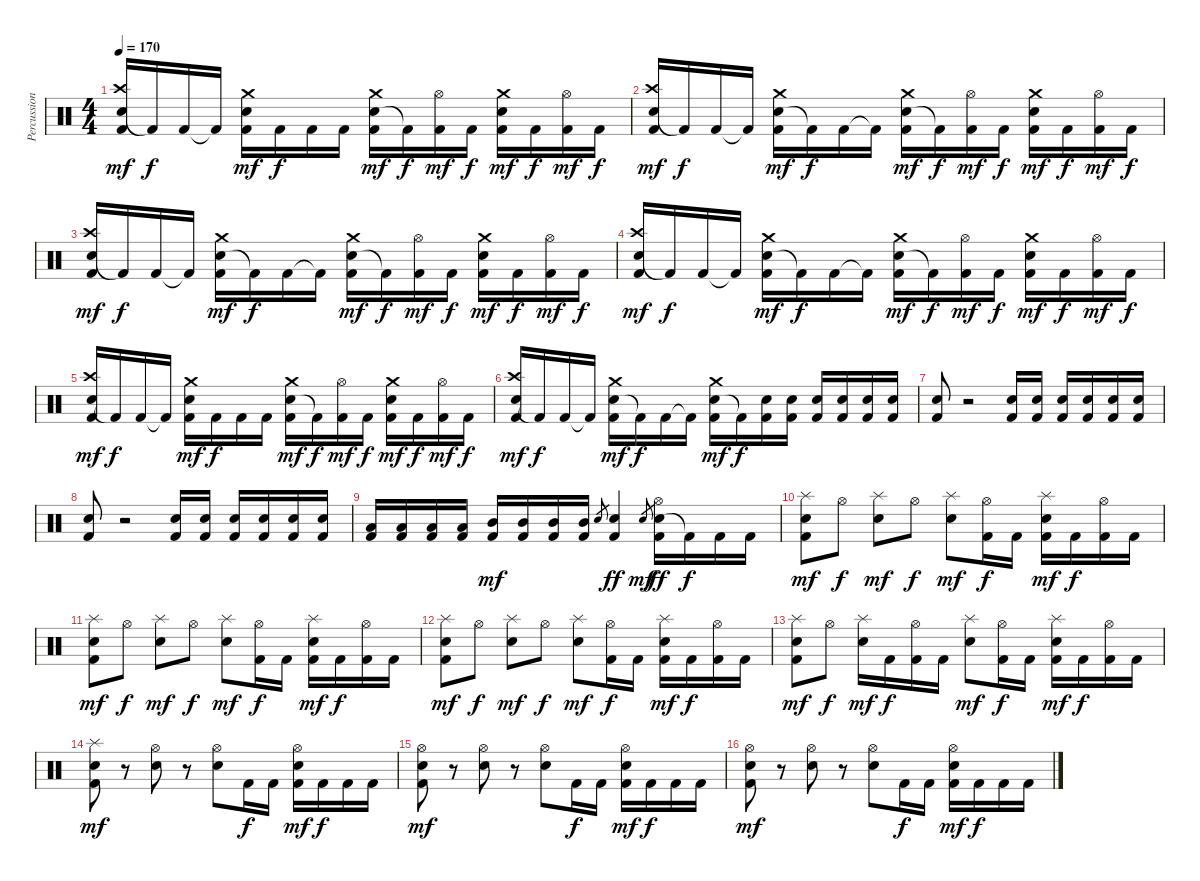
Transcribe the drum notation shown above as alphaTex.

\track ("Percussion" "Percussion") {instrument percussion}
\staff {score}
\articulation defaults
\ts (4 4)
\tempo 170
\clef neutral
\ks c
("Snare (hit) 2" "Crash high (hit)" "Kick (hit) 2").16{dy mf} "Kick (hit) 2"{t}.16{dy f} "Kick (hit) 2".16 "Kick (hit) 2"{t}.16 ("Snare (hit) 2" "Crash medium (hit)" "Kick (hit) 2").16{dy mf} "Kick (hit) 2".16{dy f} "Kick (hit) 2".16 "Kick (hit) 2".16 ("Snare (hit) 2" "Crash medium (hit)" "Kick (hit) 2").16{dy mf} "Kick (hit) 2"{t}.16{dy f} ("Hi-Hat (open)" "Kick (hit) 2").16{dy mf} "Kick (hit) 2".16{dy f} ("Snare (hit) 2" "Crash medium (hit)" "Kick (hit) 2").16{dy mf} "Kick (hit) 2".16{dy f} ("Hi-Hat (open)" "Kick (hit) 2").16{dy mf} "Kick (hit) 2".16{dy f} |
("Snare (hit) 2" "Crash high (hit)" "Kick (hit) 2").16{dy mf} "Kick (hit) 2"{t}.16{dy f} "Kick (hit) 2".16 "Kick (hit) 2"{t}.16 ("Snare (hit) 2" "Crash medium (hit)" "Kick (hit) 2").16{dy mf} "Kick (hit) 2"{t}.16{dy f} "Kick (hit) 2".16 "Kick (hit) 2"{t}.16 ("Snare (hit) 2" "Crash medium (hit)" "Kick (hit) 2").16{dy mf} "Kick (hit) 2"{t}.16{dy f} ("Hi-Hat (open)" "Kick (hit) 2").16{dy mf} "Kick (hit) 2".16{dy f} ("Snare (hit) 2" "Crash medium (hit)" "Kick (hit) 2").16{dy mf} "Kick (hit) 2".16{dy f} ("Hi-Hat (open)" "Kick (hit) 2").16{dy mf} "Kick (hit) 2".16{dy f} |
("Snare (hit) 2" "Crash high (hit)" "Kick (hit) 2").16{dy mf} "Kick (hit) 2"{t}.16{dy f} "Kick (hit) 2".16 "Kick (hit) 2"{t}.16 ("Snare (hit) 2" "Crash medium (hit)" "Kick (hit) 2").16{dy mf} "Kick (hit) 2"{t}.16{dy f} "Kick (hit) 2".16 "Kick (hit) 2"{t}.16 ("Snare (hit) 2" "Crash medium (hit)" "Kick (hit) 2").16{dy mf} "Kick (hit) 2"{t}.16{dy f} ("Hi-Hat (open)" "Kick (hit) 2").16{dy mf} "Kick (hit) 2".16{dy f} ("Snare (hit) 2" "Crash medium (hit)" "Kick (hit) 2").16{dy mf} "Kick (hit) 2".16{dy f} ("Hi-Hat (open)" "Kick (hit) 2").16{dy mf} "Kick (hit) 2".16{dy f} |
("Snare (hit) 2" "Crash high (hit)" "Kick (hit) 2").16{dy mf} "Kick (hit) 2"{t}.16{dy f} "Kick (hit) 2".16 "Kick (hit) 2"{t}.16 ("Snare (hit) 2" "Crash medium (hit)" "Kick (hit) 2").16{dy mf} "Kick (hit) 2"{t}.16{dy f} "Kick (hit) 2".16 "Kick (hit) 2"{t}.16 ("Snare (hit) 2" "Crash medium (hit)" "Kick (hit) 2").16{dy mf} "Kick (hit) 2"{t}.16{dy f} ("Hi-Hat (open)" "Kick (hit) 2").16{dy mf} "Kick (hit) 2".16{dy f} ("Snare (hit) 2" "Crash medium (hit)" "Kick (hit) 2").16{dy mf} "Kick (hit) 2".16{dy f} ("Hi-Hat (open)" "Kick (hit) 2").16{dy mf} "Kick (hit) 2".16{dy f} |
("Snare (hit) 2" "Crash high (hit)" "Kick (hit) 2").16{dy mf} "Kick (hit) 2"{t}.16{dy f} "Kick (hit) 2".16 "Kick (hit) 2"{t}.16 ("Snare (hit) 2" "Crash medium (hit)" "Kick (hit) 2").16{dy mf} "Kick (hit) 2".16{dy f} "Kick (hit) 2".16 "Kick (hit) 2".16 ("Snare (hit) 2" "Crash medium (hit)" "Kick (hit) 2").16{dy mf} "Kick (hit) 2"{t}.16{dy f} ("Hi-Hat (open)" "Kick (hit) 2").16{dy mf} "Kick (hit) 2".16{dy f} ("Snare (hit) 2" "Crash medium (hit)" "Kick (hit) 2").16{dy mf} "Kick (hit) 2".16{dy f} ("Hi-Hat (open)" "Kick (hit) 2").16{dy mf} "Kick (hit) 2".16{dy f} |
("Snare (hit) 2" "Crash high (hit)" "Kick (hit) 2").16{dy mf} "Kick (hit) 2"{t}.16{dy f} "Kick (hit) 2".16 "Kick (hit) 2"{t}.16 ("Snare (hit) 2" "Crash medium (hit)" "Kick (hit) 2").16{dy mf} "Kick (hit) 2"{t}.16{dy f} "Kick (hit) 2".16 "Kick (hit) 2"{t}.16 ("Snare (hit) 2" "Crash medium (hit)" "Kick (hit) 2").16{dy mf} "Kick (hit) 2"{t}.16{dy f} ("Snare (hit) 2" "Kick (hit) 2").16 ("Snare (hit) 2" "Kick (hit) 2").16 ("Snare (hit) 2" "Kick (hit) 2").16 ("Snare (hit) 2" "Kick (hit) 2").16 ("Snare (hit) 2" "Kick (hit) 2").16 ("Snare (hit) 2" "Kick (hit) 2").16 |
("Snare (hit) 2" "Kick (hit) 2").8 r.2 ("Snare (hit) 2" "Kick (hit) 2").16 ("Snare (hit) 2" "Kick (hit) 2").16 ("Snare (hit) 2" "Kick (hit) 2").16 ("Snare (hit) 2" "Kick (hit) 2").16 ("Snare (hit) 2" "Kick (hit) 2").16 ("Snare (hit) 2" "Kick (hit) 2").16 |
("Snare (hit) 2" "Kick (hit) 2").8 r.2 ("Snare (hit) 2" "Kick (hit) 2").16 ("Snare (hit) 2" "Kick (hit) 2").16 ("Snare (hit) 2" "Kick (hit) 2").16 ("Snare (hit) 2" "Kick (hit) 2").16 ("Snare (hit) 2" "Kick (hit) 2").16 ("Snare (hit) 2" "Kick (hit) 2").16 |
("Low Tom (hit)" "Kick (hit) 2").16 ("Low Tom (hit)" "Kick (hit) 2").16 ("Low Tom (hit)" "Kick (hit) 2").16 ("Low Tom (hit)" "Kick (hit) 2").16 ("Mid Tom (hit)" "Kick (hit) 2").16{dy mf} ("Mid Tom (hit)" "Kick (hit) 2").16 ("Mid Tom (hit)" "Kick (hit) 2").16 ("Mid Tom (hit)" "Kick (hit) 2").16 "Snare (hit) 2".8{gr} ("Snare (hit) 2" "Kick (hit) 2").4{dy ff} "Snare (hit) 2".8{gr dy mf} ("Snare (hit) 2" "Hi-Hat (open)" "Kick (hit) 2").16{dy ff} "Kick (hit) 2"{t}.16{dy f} "Kick (hit) 2".16 "Kick (hit) 2".16 |
("Snare (hit) 2" "Splash (hit)" "Kick (hit) 2").8{dy mf} "Hi-Hat (open)".8{dy f} ("Snare (hit) 2" "Splash (hit)").8{dy mf} "Hi-Hat (open)".8{dy f} ("Snare (hit) 2" "Splash (hit)").8{dy mf} ("Hi-Hat (open)" "Kick (hit) 2").16{dy f} "Kick (hit) 2".16 ("Snare (hit) 2" "Splash (hit)" "Kick (hit) 2").16{dy mf} "Kick (hit) 2".16{dy f} ("Hi-Hat (open)" "Kick (hit) 2").16 "Kick (hit) 2".16 |
("Snare (hit) 2" "Splash (hit)" "Kick (hit) 2").8{dy mf} "Hi-Hat (open)".8{dy f} ("Snare (hit) 2" "Splash (hit)").8{dy mf} "Hi-Hat (open)".8{dy f} ("Snare (hit) 2" "Splash (hit)").8{dy mf} ("Hi-Hat (open)" "Kick (hit) 2").16{dy f} "Kick (hit) 2".16 ("Snare (hit) 2" "Splash (hit)" "Kick (hit) 2").16{dy mf} "Kick (hit) 2".16{dy f} ("Hi-Hat (open)" "Kick (hit) 2").16 "Kick (hit) 2".16 |
("Snare (hit) 2" "Splash (hit)" "Kick (hit) 2").8{dy mf} "Hi-Hat (open)".8{dy f} ("Snare (hit) 2" "Splash (hit)").8{dy mf} "Hi-Hat (open)".8{dy f} ("Snare (hit) 2" "Splash (hit)").8{dy mf} ("Hi-Hat (open)" "Kick (hit) 2").16{dy f} "Kick (hit) 2".16 ("Snare (hit) 2" "Splash (hit)" "Kick (hit) 2").16{dy mf} "Kick (hit) 2".16{dy f} ("Hi-Hat (open)" "Kick (hit) 2").16 "Kick (hit) 2".16 |
("Snare (hit) 2" "Splash (hit)" "Kick (hit) 2").8{dy mf} "Hi-Hat (open)".8{dy f} ("Snare (hit) 2" "Splash (hit)").16{dy mf} "Kick (hit) 2".16{dy f} ("Hi-Hat (open)" "Kick (hit) 2").16 "Kick (hit) 2".16 ("Snare (hit) 2" "Splash (hit)").8{dy mf} ("Hi-Hat (open)" "Kick (hit) 2").16{dy f} "Kick (hit) 2".16 ("Snare (hit) 2" "Splash (hit)" "Kick (hit) 2").16{dy mf} "Kick (hit) 2".16{dy f} ("Hi-Hat (open)" "Kick (hit) 2").16 "Kick (hit) 2".16 |
("Snare (hit) 2" "Splash (hit)" "Kick (hit) 2").8{dy mf} r.8 ("Snare (hit) 2" "Hi-Hat (open)").8 r.8 ("Snare (hit) 2" "Hi-Hat (open)").8 "Kick (hit) 2".16{dy f} "Kick (hit) 2".16 ("Snare (hit) 2" "Hi-Hat (open)" "Kick (hit) 2").16{dy mf} "Kick (hit) 2".16{dy f} "Kick (hit) 2".16 "Kick (hit) 2".16 |
("Snare (hit) 2" "Hi-Hat (open)" "Kick (hit) 2").8{dy mf} r.8 ("Snare (hit) 2" "Hi-Hat (open)").8 r.8 ("Snare (hit) 2" "Hi-Hat (open)").8 "Kick (hit) 2".16{dy f} "Kick (hit) 2".16 ("Snare (hit) 2" "Hi-Hat (open)" "Kick (hit) 2").16{dy mf} "Kick (hit) 2".16{dy f} "Kick (hit) 2".16 "Kick (hit) 2".16 |
("Snare (hit) 2" "Hi-Hat (open)" "Kick (hit) 2").8{dy mf} r.8 ("Snare (hit) 2" "Hi-Hat (open)").8 r.8 ("Snare (hit) 2" "Hi-Hat (open)").8 "Kick (hit) 2".16{dy f} "Kick (hit) 2".16 ("Snare (hit) 2" "Hi-Hat (open)" "Kick (hit) 2").16{dy mf} "Kick (hit) 2".16{dy f} "Kick (hit) 2".16 "Kick (hit) 2".16
